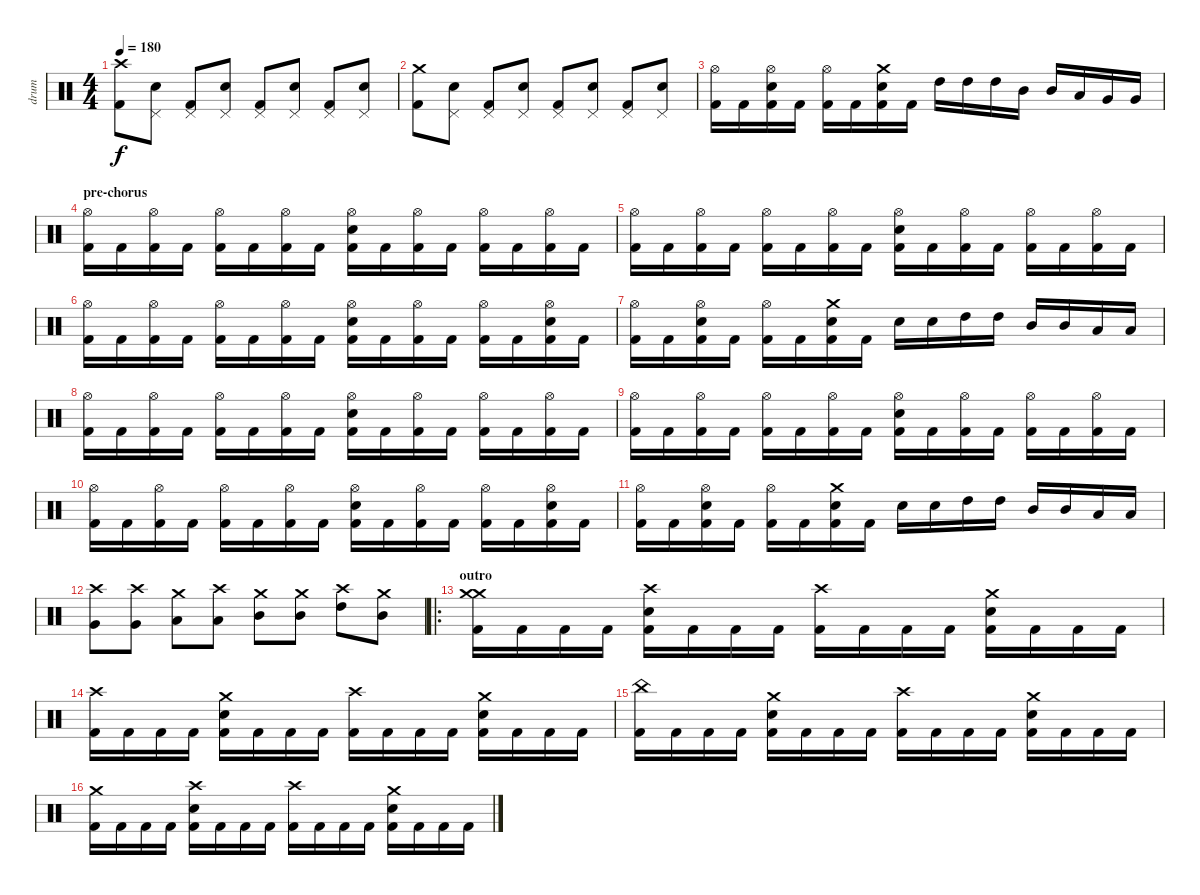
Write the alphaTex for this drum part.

\track ("drum" "drum") {instrument percussion}
\staff {score}
\articulation defaults
\ts (4 4)
\tempo 180
\clef neutral
\ks c
("Crash high (hit)" "Kick (hit) 2").8{dy f} ("Pedal Hi-Hat (hit)" "Electric Snare (hit)").8 ("Pedal Hi-Hat (hit)" "Kick (hit) 2").8 ("Pedal Hi-Hat (hit)" "Electric Snare (hit)").8 ("Pedal Hi-Hat (hit)" "Kick (hit) 2").8 ("Pedal Hi-Hat (hit)" "Electric Snare (hit)").8 ("Pedal Hi-Hat (hit)" "Kick (hit) 2").8 ("Pedal Hi-Hat (hit)" "Electric Snare (hit)").8 |
("Crash medium (hit)" "Kick (hit) 2").8 ("Pedal Hi-Hat (hit)" "Electric Snare (hit)").8 ("Pedal Hi-Hat (hit)" "Kick (hit) 2").8 ("Pedal Hi-Hat (hit)" "Electric Snare (hit)").8 ("Pedal Hi-Hat (hit)" "Kick (hit) 2").8 ("Pedal Hi-Hat (hit)" "Electric Snare (hit)").8 ("Pedal Hi-Hat (hit)" "Kick (hit) 2").8 ("Pedal Hi-Hat (hit)" "Electric Snare (hit)").8 |
("Hi-Hat (open)" "Kick (hit) 2").16 "Kick (hit) 2".16 ("Hi-Hat (open)" "Electric Snare (hit)" "Kick (hit) 2").16 "Kick (hit) 2".16 ("Hi-Hat (open)" "Kick (hit) 2").16 "Kick (hit) 2".16 ("Crash medium (hit)" "Electric Snare (hit)" "Kick (hit) 2").16 "Kick (hit) 2".16 "High Tom (hit)".16 "High Tom (hit)".16 "High Tom (hit)".16 "Mid Tom (hit)".16 "Mid Tom (hit)".16 "Low Tom (hit)".16 "Very Low Tom (hit)".16 "Very Low Tom (hit)".16 |
\section ("" "pre-chorus")
("Hi-Hat (open)" "Kick (hit) 2").16 "Kick (hit) 2".16 ("Hi-Hat (open)" "Kick (hit) 2").16 "Kick (hit) 2".16 ("Hi-Hat (open)" "Kick (hit) 2").16 "Kick (hit) 2".16 ("Hi-Hat (open)" "Kick (hit) 2").16 "Kick (hit) 2".16 ("Hi-Hat (open)" "Electric Snare (hit)" "Kick (hit) 2").16 "Kick (hit) 2".16 ("Hi-Hat (open)" "Kick (hit) 2").16 "Kick (hit) 2".16 ("Hi-Hat (open)" "Kick (hit) 2").16 "Kick (hit) 2".16 ("Hi-Hat (open)" "Kick (hit) 2").16 "Kick (hit) 2".16 |
("Hi-Hat (open)" "Kick (hit) 2").16 "Kick (hit) 2".16 ("Hi-Hat (open)" "Kick (hit) 2").16 "Kick (hit) 2".16 ("Hi-Hat (open)" "Kick (hit) 2").16 "Kick (hit) 2".16 ("Hi-Hat (open)" "Kick (hit) 2").16 "Kick (hit) 2".16 ("Hi-Hat (open)" "Electric Snare (hit)" "Kick (hit) 2").16 "Kick (hit) 2".16 ("Hi-Hat (open)" "Kick (hit) 2").16 "Kick (hit) 2".16 ("Hi-Hat (open)" "Kick (hit) 2").16 "Kick (hit) 2".16 ("Hi-Hat (open)" "Kick (hit) 2").16 "Kick (hit) 2".16 |
("Hi-Hat (open)" "Kick (hit) 2").16 "Kick (hit) 2".16 ("Hi-Hat (open)" "Kick (hit) 2").16 "Kick (hit) 2".16 ("Hi-Hat (open)" "Kick (hit) 2").16 "Kick (hit) 2".16 ("Hi-Hat (open)" "Kick (hit) 2").16 "Kick (hit) 2".16 ("Hi-Hat (open)" "Electric Snare (hit)" "Kick (hit) 2").16 "Kick (hit) 2".16 ("Hi-Hat (open)" "Kick (hit) 2").16 "Kick (hit) 2".16 ("Hi-Hat (open)" "Kick (hit) 2").16 "Kick (hit) 2".16 ("Hi-Hat (open)" "Electric Snare (hit)" "Kick (hit) 2").16 "Kick (hit) 2".16 |
("Hi-Hat (open)" "Kick (hit) 2").16 "Kick (hit) 2".16 ("Hi-Hat (open)" "Electric Snare (hit)" "Kick (hit) 2").16 "Kick (hit) 2".16 ("Hi-Hat (open)" "Kick (hit) 2").16 "Kick (hit) 2".16 ("Crash medium (hit)" "Electric Snare (hit)" "Kick (hit) 2").16 "Kick (hit) 2".16 "Electric Snare (hit)".16 "Electric Snare (hit)".16 "High Tom (hit)".16 "High Tom (hit)".16 "Mid Tom (hit)".16 "Mid Tom (hit)".16 "Low Tom (hit)".16 "Low Tom (hit)".16 |
("Hi-Hat (open)" "Kick (hit) 2").16 "Kick (hit) 2".16 ("Hi-Hat (open)" "Kick (hit) 2").16 "Kick (hit) 2".16 ("Hi-Hat (open)" "Kick (hit) 2").16 "Kick (hit) 2".16 ("Hi-Hat (open)" "Kick (hit) 2").16 "Kick (hit) 2".16 ("Hi-Hat (open)" "Electric Snare (hit)" "Kick (hit) 2").16 "Kick (hit) 2".16 ("Hi-Hat (open)" "Kick (hit) 2").16 "Kick (hit) 2".16 ("Hi-Hat (open)" "Kick (hit) 2").16 "Kick (hit) 2".16 ("Hi-Hat (open)" "Kick (hit) 2").16 "Kick (hit) 2".16 |
("Hi-Hat (open)" "Kick (hit) 2").16 "Kick (hit) 2".16 ("Hi-Hat (open)" "Kick (hit) 2").16 "Kick (hit) 2".16 ("Hi-Hat (open)" "Kick (hit) 2").16 "Kick (hit) 2".16 ("Hi-Hat (open)" "Kick (hit) 2").16 "Kick (hit) 2".16 ("Hi-Hat (open)" "Electric Snare (hit)" "Kick (hit) 2").16 "Kick (hit) 2".16 ("Hi-Hat (open)" "Kick (hit) 2").16 "Kick (hit) 2".16 ("Hi-Hat (open)" "Kick (hit) 2").16 "Kick (hit) 2".16 ("Hi-Hat (open)" "Kick (hit) 2").16 "Kick (hit) 2".16 |
("Hi-Hat (open)" "Kick (hit) 2").16 "Kick (hit) 2".16 ("Hi-Hat (open)" "Kick (hit) 2").16 "Kick (hit) 2".16 ("Hi-Hat (open)" "Kick (hit) 2").16 "Kick (hit) 2".16 ("Hi-Hat (open)" "Kick (hit) 2").16 "Kick (hit) 2".16 ("Hi-Hat (open)" "Electric Snare (hit)" "Kick (hit) 2").16 "Kick (hit) 2".16 ("Hi-Hat (open)" "Kick (hit) 2").16 "Kick (hit) 2".16 ("Hi-Hat (open)" "Kick (hit) 2").16 "Kick (hit) 2".16 ("Hi-Hat (open)" "Electric Snare (hit)" "Kick (hit) 2").16 "Kick (hit) 2".16 |
("Hi-Hat (open)" "Kick (hit) 2").16 "Kick (hit) 2".16 ("Hi-Hat (open)" "Electric Snare (hit)" "Kick (hit) 2").16 "Kick (hit) 2".16 ("Hi-Hat (open)" "Kick (hit) 2").16 "Kick (hit) 2".16 ("Crash medium (hit)" "Electric Snare (hit)" "Kick (hit) 2").16 "Kick (hit) 2".16 "Electric Snare (hit)".16 "Electric Snare (hit)".16 "High Tom (hit)".16 "High Tom (hit)".16 "Mid Tom (hit)".16 "Mid Tom (hit)".16 "Low Tom (hit)".16 "Low Tom (hit)".16 |
("Crash high (hit)" "Very Low Tom (hit)").8 ("Crash high (hit)" "Very Low Tom (hit)").8 ("Crash medium (hit)" "Low Tom (hit)").8 ("Crash high (hit)" "Low Tom (hit)").8 ("Crash medium (hit)" "Mid Tom (hit)").8 ("Crash medium (hit)" "Mid Tom (hit)").8 ("Crash high (hit)" "High Tom (hit)").8 ("Crash medium (hit)" "Mid Tom (hit)").8 |
\ro
\section ("" "outro")
("Crash medium (hit)" "Crash medium (hit)" "Kick (hit) 2").16 "Kick (hit) 2".16 "Kick (hit) 2".16 "Kick (hit) 2".16 ("Crash high (hit)" "Electric Snare (hit)" "Kick (hit) 2").16 "Kick (hit) 2".16 "Kick (hit) 2".16 "Kick (hit) 2".16 ("Crash high (hit)" "Kick (hit) 2").16 "Kick (hit) 2".16 "Kick (hit) 2".16 "Kick (hit) 2".16 ("Crash medium (hit)" "Electric Snare (hit)" "Kick (hit) 2").16 "Kick (hit) 2".16 "Kick (hit) 2".16 "Kick (hit) 2".16 |
("Crash high (hit)" "Kick (hit) 2").16 "Kick (hit) 2".16 "Kick (hit) 2".16 "Kick (hit) 2".16 ("Crash medium (hit)" "Electric Snare (hit)" "Kick (hit) 2").16 "Kick (hit) 2".16 "Kick (hit) 2".16 "Kick (hit) 2".16 ("Crash high (hit)" "Kick (hit) 2").16 "Kick (hit) 2".16 "Kick (hit) 2".16 "Kick (hit) 2".16 ("Crash medium (hit)" "Electric Snare (hit)" "Kick (hit) 2").16 "Kick (hit) 2".16 "Kick (hit) 2".16 "Kick (hit) 2".16 |
("China (hit)" "Kick (hit) 2").16 "Kick (hit) 2".16 "Kick (hit) 2".16 "Kick (hit) 2".16 ("Crash medium (hit)" "Electric Snare (hit)" "Kick (hit) 2").16 "Kick (hit) 2".16 "Kick (hit) 2".16 "Kick (hit) 2".16 ("Crash high (hit)" "Kick (hit) 2").16 "Kick (hit) 2".16 "Kick (hit) 2".16 "Kick (hit) 2".16 ("Crash medium (hit)" "Electric Snare (hit)" "Kick (hit) 2").16 "Kick (hit) 2".16 "Kick (hit) 2".16 "Kick (hit) 2".16 |
("Crash medium (hit)" "Kick (hit) 2").16 "Kick (hit) 2".16 "Kick (hit) 2".16 "Kick (hit) 2".16 ("Crash high (hit)" "Electric Snare (hit)" "Kick (hit) 2").16 "Kick (hit) 2".16 "Kick (hit) 2".16 "Kick (hit) 2".16 ("Crash high (hit)" "Kick (hit) 2").16 "Kick (hit) 2".16 "Kick (hit) 2".16 "Kick (hit) 2".16 ("Crash medium (hit)" "Electric Snare (hit)" "Kick (hit) 2").16 "Kick (hit) 2".16 "Kick (hit) 2".16 "Kick (hit) 2".16
